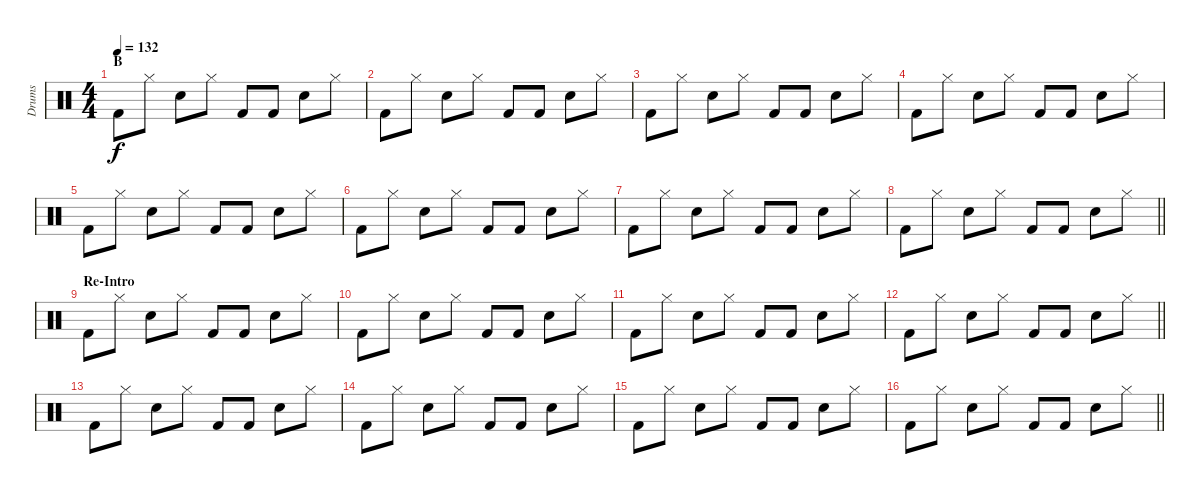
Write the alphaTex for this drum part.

\track ("Drums" "Drums") {instrument percussion}
\staff {score}
\articulation defaults
\ts (4 4)
\section ("" "B")
\tempo 132
\clef neutral
\ks c "Kick (hit) 2".8{dy f} "Hi-Hat (closed)".8 "Electric Snare (hit)".8 "Hi-Hat (closed)".8 "Kick (hit) 2".8 "Kick (hit) 2".8 "Electric Snare (hit)".8 "Hi-Hat (closed)".8
|
"Kick (hit) 2".8 "Hi-Hat (closed)".8 "Electric Snare (hit)".8 "Hi-Hat (closed)".8 "Kick (hit) 2".8 "Kick (hit) 2".8 "Electric Snare (hit)".8 "Hi-Hat (closed)".8 |
"Kick (hit) 2".8 "Hi-Hat (closed)".8 "Electric Snare (hit)".8 "Hi-Hat (closed)".8 "Kick (hit) 2".8 "Kick (hit) 2".8 "Electric Snare (hit)".8 "Hi-Hat (closed)".8 |
"Kick (hit) 2".8 "Hi-Hat (closed)".8 "Electric Snare (hit)".8 "Hi-Hat (closed)".8 "Kick (hit) 2".8 "Kick (hit) 2".8 "Electric Snare (hit)".8 "Hi-Hat (closed)".8 |
"Kick (hit) 2".8 "Hi-Hat (closed)".8 "Electric Snare (hit)".8 "Hi-Hat (closed)".8 "Kick (hit) 2".8 "Kick (hit) 2".8 "Electric Snare (hit)".8 "Hi-Hat (closed)".8 |
"Kick (hit) 2".8 "Hi-Hat (closed)".8 "Electric Snare (hit)".8 "Hi-Hat (closed)".8 "Kick (hit) 2".8 "Kick (hit) 2".8 "Electric Snare (hit)".8 "Hi-Hat (closed)".8 |
"Kick (hit) 2".8 "Hi-Hat (closed)".8 "Electric Snare (hit)".8 "Hi-Hat (closed)".8 "Kick (hit) 2".8 "Kick (hit) 2".8 "Electric Snare (hit)".8 "Hi-Hat (closed)".8 |
\barLineRight lightlight "Kick (hit) 2".8 "Hi-Hat (closed)".8 "Electric Snare (hit)".8 "Hi-Hat (closed)".8 "Kick (hit) 2".8 "Kick (hit) 2".8 "Electric Snare (hit)".8 "Hi-Hat (closed)".8
|
\section ("" "Re-Intro")
"Kick (hit) 2".8 "Hi-Hat (closed)".8 "Electric Snare (hit)".8 "Hi-Hat (closed)".8 "Kick (hit) 2".8 "Kick (hit) 2".8 "Electric Snare (hit)".8 "Hi-Hat (closed)".8 |
"Kick (hit) 2".8 "Hi-Hat (closed)".8 "Electric Snare (hit)".8 "Hi-Hat (closed)".8 "Kick (hit) 2".8 "Kick (hit) 2".8 "Electric Snare (hit)".8 "Hi-Hat (closed)".8 |
"Kick (hit) 2".8 "Hi-Hat (closed)".8 "Electric Snare (hit)".8 "Hi-Hat (closed)".8 "Kick (hit) 2".8 "Kick (hit) 2".8 "Electric Snare (hit)".8 "Hi-Hat (closed)".8 |
\barLineRight lightlight "Kick (hit) 2".8 "Hi-Hat (closed)".8 "Electric Snare (hit)".8 "Hi-Hat (closed)".8 "Kick (hit) 2".8 "Kick (hit) 2".8 "Electric Snare (hit)".8 "Hi-Hat (closed)".8
|
"Kick (hit) 2".8 "Hi-Hat (closed)".8 "Electric Snare (hit)".8 "Hi-Hat (closed)".8 "Kick (hit) 2".8 "Kick (hit) 2".8 "Electric Snare (hit)".8 "Hi-Hat (closed)".8 |
"Kick (hit) 2".8 "Hi-Hat (closed)".8 "Electric Snare (hit)".8 "Hi-Hat (closed)".8 "Kick (hit) 2".8 "Kick (hit) 2".8 "Electric Snare (hit)".8 "Hi-Hat (closed)".8 |
"Kick (hit) 2".8 "Hi-Hat (closed)".8 "Electric Snare (hit)".8 "Hi-Hat (closed)".8 "Kick (hit) 2".8 "Kick (hit) 2".8 "Electric Snare (hit)".8 "Hi-Hat (closed)".8 |
\barLineRight lightlight "Kick (hit) 2".8 "Hi-Hat (closed)".8 "Electric Snare (hit)".8 "Hi-Hat (closed)".8 "Kick (hit) 2".8 "Kick (hit) 2".8 "Electric Snare (hit)".8 "Hi-Hat (closed)".8
